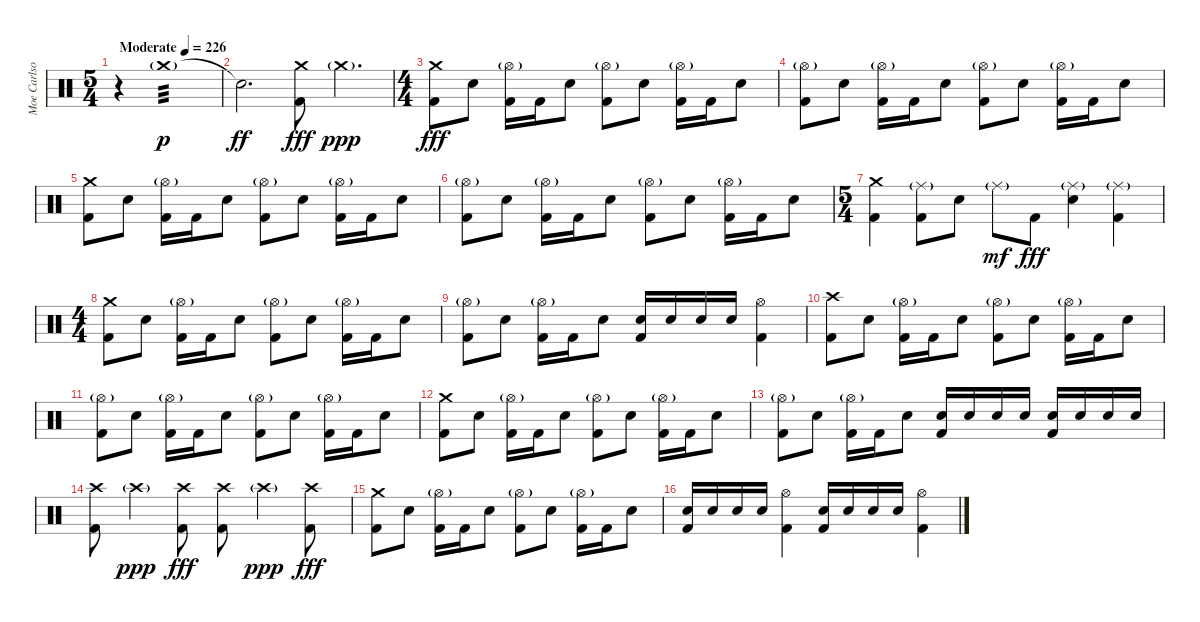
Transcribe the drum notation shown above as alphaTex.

\track ("Moe Carlson" "Moe Carlso") {instrument percussion}
\staff {score}
\articulation defaults
\ts (5 4)
\tempo (226 "Moderate")
\clef neutral
\ks c
r.4{dy p volume 0} "Crash medium (hit)"{g}.1{tp 3 volume 16} |
"Snare (hit)"{t}.2{d dy ff} ("Crash medium (hit)" "Kick (hit) 2").8{dy fff volume 16} "Crash medium (hit)"{g}.4{d dy ppp} |
\ts (4 4)
("Crash medium (hit)" "Kick (hit) 2").8{dy fff} "Electric Snare (hit)".8 ("Hi-Hat (open)"{g} "Kick (hit) 2").16 "Kick (hit) 2".16 "Electric Snare (hit)".8 ("Hi-Hat (open)"{g} "Kick (hit) 2").8 "Electric Snare (hit)".8 ("Hi-Hat (open)"{g} "Kick (hit) 2").16 "Kick (hit) 2".16 "Electric Snare (hit)".8 |
("Hi-Hat (open)"{g} "Kick (hit) 2").8 "Electric Snare (hit)".8 ("Hi-Hat (open)"{g} "Kick (hit) 2").16 "Kick (hit) 2".16 "Electric Snare (hit)".8 ("Hi-Hat (open)"{g} "Kick (hit) 2").8 "Electric Snare (hit)".8 ("Hi-Hat (open)"{g} "Kick (hit) 2").16 "Kick (hit) 2".16 "Electric Snare (hit)".8 |
("Crash medium (hit)" "Kick (hit) 2").8 "Electric Snare (hit)".8 ("Hi-Hat (open)"{g} "Kick (hit) 2").16 "Kick (hit) 2".16 "Electric Snare (hit)".8 ("Hi-Hat (open)"{g} "Kick (hit) 2").8 "Electric Snare (hit)".8 ("Hi-Hat (open)"{g} "Kick (hit) 2").16 "Kick (hit) 2".16 "Electric Snare (hit)".8 |
("Hi-Hat (open)"{g} "Kick (hit) 2").8 "Electric Snare (hit)".8 ("Hi-Hat (open)"{g} "Kick (hit) 2").16 "Kick (hit) 2".16 "Electric Snare (hit)".8 ("Hi-Hat (open)"{g} "Kick (hit) 2").8 "Electric Snare (hit)".8 ("Hi-Hat (open)"{g} "Kick (hit) 2").16 "Kick (hit) 2".16 "Electric Snare (hit)".8 |
\ts (5 4)
("Crash medium (hit)" "Kick (hit) 2").4 ("Ride (middle)"{g} "Kick (hit) 2").8 "Electric Snare (hit)".8 "Ride (middle)"{g}.8{dy mf} "Kick (hit) 2".8{dy fff} ("Ride (middle)"{g} "Electric Snare (hit)").4 ("Ride (middle)"{g} "Kick (hit) 2").4 |
\ts (4 4)
("Crash medium (hit)" "Kick (hit) 2").8 "Electric Snare (hit)".8 ("Hi-Hat (open)"{g} "Kick (hit) 2").16 "Kick (hit) 2".16 "Electric Snare (hit)".8 ("Hi-Hat (open)"{g} "Kick (hit) 2").8 "Electric Snare (hit)".8 ("Hi-Hat (open)"{g} "Kick (hit) 2").16 "Kick (hit) 2".16 "Electric Snare (hit)".8 |
("Hi-Hat (open)"{g} "Kick (hit) 2").8 "Electric Snare (hit)".8 ("Hi-Hat (open)"{g} "Kick (hit) 2").16 "Kick (hit) 2".16 "Electric Snare (hit)".8 ("Electric Snare (hit)" "Kick (hit) 2").16 "Electric Snare (hit)".16 "Electric Snare (hit)".16 "Electric Snare (hit)".16 ("Hi-Hat (open)" "Kick (hit) 2").4 |
("Crash high (hit)" "Kick (hit) 2").8 "Electric Snare (hit)".8 ("Hi-Hat (open)"{g} "Kick (hit) 2").16 "Kick (hit) 2".16 "Electric Snare (hit)".8 ("Hi-Hat (open)"{g} "Kick (hit) 2").8 "Electric Snare (hit)".8 ("Hi-Hat (open)"{g} "Kick (hit) 2").16 "Kick (hit) 2".16 "Electric Snare (hit)".8 |
("Hi-Hat (open)"{g} "Kick (hit) 2").8 "Electric Snare (hit)".8 ("Hi-Hat (open)"{g} "Kick (hit) 2").16 "Kick (hit) 2".16 "Electric Snare (hit)".8 ("Hi-Hat (open)"{g} "Kick (hit) 2").8 "Electric Snare (hit)".8 ("Hi-Hat (open)"{g} "Kick (hit) 2").16 "Kick (hit) 2".16 "Electric Snare (hit)".8 |
("Crash medium (hit)" "Kick (hit) 2").8 "Electric Snare (hit)".8 ("Hi-Hat (open)"{g} "Kick (hit) 2").16 "Kick (hit) 2".16 "Electric Snare (hit)".8 ("Hi-Hat (open)"{g} "Kick (hit) 2").8 "Electric Snare (hit)".8 ("Hi-Hat (open)"{g} "Kick (hit) 2").16 "Kick (hit) 2".16 "Electric Snare (hit)".8 |
("Hi-Hat (open)"{g} "Kick (hit) 2").8 "Electric Snare (hit)".8 ("Hi-Hat (open)"{g} "Kick (hit) 2").16 "Kick (hit) 2".16 "Electric Snare (hit)".8 ("Electric Snare (hit)" "Kick (hit) 2").16 "Electric Snare (hit)".16 "Electric Snare (hit)".16 "Electric Snare (hit)".16 ("Electric Snare (hit)" "Kick (hit) 2").16 "Electric Snare (hit)".16 "Electric Snare (hit)".16 "Electric Snare (hit)".16 |
("Crash high (hit)" "Kick (hit) 2").8 "Crash high (hit)"{g}.4{dy ppp} ("Crash high (hit)" "Kick (hit) 2").8{dy fff} ("Crash high (hit)" "Kick (hit) 2").8 "Crash high (hit)"{g}.4{dy ppp} ("Crash high (hit)" "Kick (hit) 2").8{dy fff} |
("Crash medium (hit)" "Kick (hit) 2").8 "Electric Snare (hit)".8 ("Hi-Hat (open)"{g} "Kick (hit) 2").16 "Kick (hit) 2".16 "Electric Snare (hit)".8 ("Hi-Hat (open)"{g} "Kick (hit) 2").8 "Electric Snare (hit)".8 ("Hi-Hat (open)"{g} "Kick (hit) 2").16 "Kick (hit) 2".16 "Electric Snare (hit)".8 |
("Electric Snare (hit)" "Kick (hit) 2").16 "Electric Snare (hit)".16 "Electric Snare (hit)".16 "Electric Snare (hit)".16 ("Hi-Hat (open)" "Kick (hit) 2").4 ("Electric Snare (hit)" "Kick (hit) 2").16 "Electric Snare (hit)".16 "Electric Snare (hit)".16 "Electric Snare (hit)".16 ("Hi-Hat (open)" "Kick (hit) 2").4
